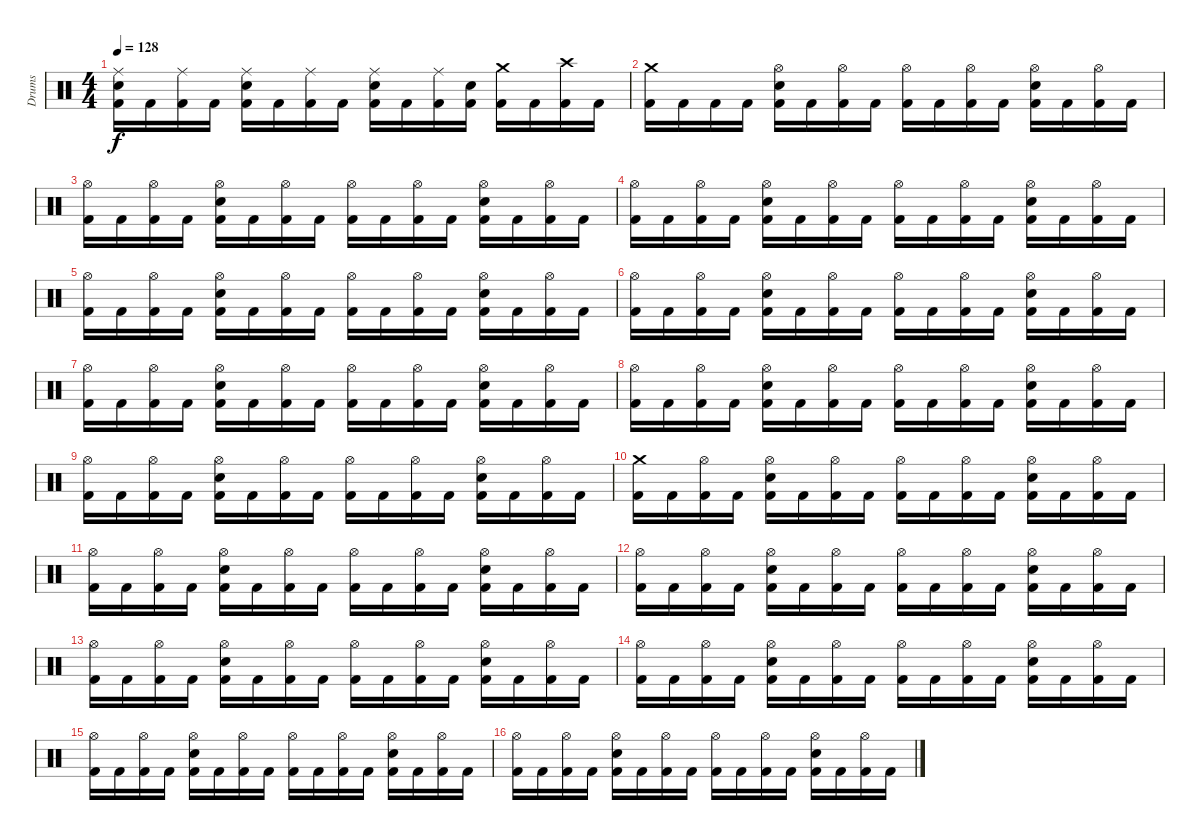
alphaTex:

\track ("Drums" "Drums") {instrument percussion}
\staff {score}
\articulation defaults
\ts (4 4)
\tempo 128
\clef neutral
\ks c
("Ride (middle)" "Electric Snare (hit)" "Kick (hit) 2").16{dy f} "Kick (hit) 2".16 ("Ride (middle)" "Kick (hit) 2").16 "Kick (hit) 2".16 ("Ride (middle)" "Electric Snare (hit)" "Kick (hit) 2").16 "Kick (hit) 2".16 ("Ride (middle)" "Kick (hit) 2").16 "Kick (hit) 2".16 ("Ride (middle)" "Electric Snare (hit)" "Kick (hit) 2").16 "Kick (hit) 2".16 ("Ride (middle)" "Kick (hit) 2").16 ("Electric Snare (hit)" "Kick (hit) 2").16 ("Crash medium (hit)" "Kick (hit) 2").16 "Kick (hit) 2".16 ("Crash high (hit)" "Kick (hit) 2").16 "Kick (hit) 2".16 |
("Crash medium (hit)" "Kick (hit) 2").16 "Kick (hit) 2".16 "Kick (hit) 2".16 "Kick (hit) 2".16 ("Hi-Hat (open)" "Electric Snare (hit)" "Kick (hit) 2").16 "Kick (hit) 2".16 ("Hi-Hat (open)" "Kick (hit) 2").16 "Kick (hit) 2".16 ("Hi-Hat (open)" "Kick (hit) 2").16 "Kick (hit) 2".16 ("Hi-Hat (open)" "Kick (hit) 2").16 "Kick (hit) 2".16 ("Hi-Hat (open)" "Electric Snare (hit)" "Kick (hit) 2").16 "Kick (hit) 2".16 ("Hi-Hat (open)" "Kick (hit) 2").16 "Kick (hit) 2".16 |
("Hi-Hat (open)" "Kick (hit) 2").16 "Kick (hit) 2".16 ("Hi-Hat (open)" "Kick (hit) 2").16 "Kick (hit) 2".16 ("Hi-Hat (open)" "Electric Snare (hit)" "Kick (hit) 2").16 "Kick (hit) 2".16 ("Hi-Hat (open)" "Kick (hit) 2").16 "Kick (hit) 2".16 ("Hi-Hat (open)" "Kick (hit) 2").16 "Kick (hit) 2".16 ("Hi-Hat (open)" "Kick (hit) 2").16 "Kick (hit) 2".16 ("Hi-Hat (open)" "Electric Snare (hit)" "Kick (hit) 2").16 "Kick (hit) 2".16 ("Hi-Hat (open)" "Kick (hit) 2").16 "Kick (hit) 2".16 |
("Hi-Hat (open)" "Kick (hit) 2").16 "Kick (hit) 2".16 ("Hi-Hat (open)" "Kick (hit) 2").16 "Kick (hit) 2".16 ("Hi-Hat (open)" "Electric Snare (hit)" "Kick (hit) 2").16 "Kick (hit) 2".16 ("Hi-Hat (open)" "Kick (hit) 2").16 "Kick (hit) 2".16 ("Hi-Hat (open)" "Kick (hit) 2").16 "Kick (hit) 2".16 ("Hi-Hat (open)" "Kick (hit) 2").16 "Kick (hit) 2".16 ("Hi-Hat (open)" "Electric Snare (hit)" "Kick (hit) 2").16 "Kick (hit) 2".16 ("Hi-Hat (open)" "Kick (hit) 2").16 "Kick (hit) 2".16 |
("Hi-Hat (open)" "Kick (hit) 2").16 "Kick (hit) 2".16 ("Hi-Hat (open)" "Kick (hit) 2").16 "Kick (hit) 2".16 ("Hi-Hat (open)" "Electric Snare (hit)" "Kick (hit) 2").16 "Kick (hit) 2".16 ("Hi-Hat (open)" "Kick (hit) 2").16 "Kick (hit) 2".16 ("Hi-Hat (open)" "Kick (hit) 2").16 "Kick (hit) 2".16 ("Hi-Hat (open)" "Kick (hit) 2").16 "Kick (hit) 2".16 ("Hi-Hat (open)" "Electric Snare (hit)" "Kick (hit) 2").16 "Kick (hit) 2".16 ("Hi-Hat (open)" "Kick (hit) 2").16 "Kick (hit) 2".16 |
("Hi-Hat (open)" "Kick (hit) 2").16 "Kick (hit) 2".16 ("Hi-Hat (open)" "Kick (hit) 2").16 "Kick (hit) 2".16 ("Hi-Hat (open)" "Electric Snare (hit)" "Kick (hit) 2").16 "Kick (hit) 2".16 ("Hi-Hat (open)" "Kick (hit) 2").16 "Kick (hit) 2".16 ("Hi-Hat (open)" "Kick (hit) 2").16 "Kick (hit) 2".16 ("Hi-Hat (open)" "Kick (hit) 2").16 "Kick (hit) 2".16 ("Hi-Hat (open)" "Electric Snare (hit)" "Kick (hit) 2").16 "Kick (hit) 2".16 ("Hi-Hat (open)" "Kick (hit) 2").16 "Kick (hit) 2".16 |
("Hi-Hat (open)" "Kick (hit) 2").16 "Kick (hit) 2".16 ("Hi-Hat (open)" "Kick (hit) 2").16 "Kick (hit) 2".16 ("Hi-Hat (open)" "Electric Snare (hit)" "Kick (hit) 2").16 "Kick (hit) 2".16 ("Hi-Hat (open)" "Kick (hit) 2").16 "Kick (hit) 2".16 ("Hi-Hat (open)" "Kick (hit) 2").16 "Kick (hit) 2".16 ("Hi-Hat (open)" "Kick (hit) 2").16 "Kick (hit) 2".16 ("Hi-Hat (open)" "Electric Snare (hit)" "Kick (hit) 2").16 "Kick (hit) 2".16 ("Hi-Hat (open)" "Kick (hit) 2").16 "Kick (hit) 2".16 |
("Hi-Hat (open)" "Kick (hit) 2").16 "Kick (hit) 2".16 ("Hi-Hat (open)" "Kick (hit) 2").16 "Kick (hit) 2".16 ("Hi-Hat (open)" "Electric Snare (hit)" "Kick (hit) 2").16 "Kick (hit) 2".16 ("Hi-Hat (open)" "Kick (hit) 2").16 "Kick (hit) 2".16 ("Hi-Hat (open)" "Kick (hit) 2").16 "Kick (hit) 2".16 ("Hi-Hat (open)" "Kick (hit) 2").16 "Kick (hit) 2".16 ("Hi-Hat (open)" "Electric Snare (hit)" "Kick (hit) 2").16 "Kick (hit) 2".16 ("Hi-Hat (open)" "Kick (hit) 2").16 "Kick (hit) 2".16 |
("Hi-Hat (open)" "Kick (hit) 2").16 "Kick (hit) 2".16 ("Hi-Hat (open)" "Kick (hit) 2").16 "Kick (hit) 2".16 ("Hi-Hat (open)" "Electric Snare (hit)" "Kick (hit) 2").16 "Kick (hit) 2".16 ("Hi-Hat (open)" "Kick (hit) 2").16 "Kick (hit) 2".16 ("Hi-Hat (open)" "Kick (hit) 2").16 "Kick (hit) 2".16 ("Hi-Hat (open)" "Kick (hit) 2").16 "Kick (hit) 2".16 ("Hi-Hat (open)" "Electric Snare (hit)" "Kick (hit) 2").16 "Kick (hit) 2".16 ("Hi-Hat (open)" "Kick (hit) 2").16 "Kick (hit) 2".16 |
("Crash medium (hit)" "Kick (hit) 2").16 "Kick (hit) 2".16 ("Hi-Hat (open)" "Kick (hit) 2").16 "Kick (hit) 2".16 ("Hi-Hat (open)" "Electric Snare (hit)" "Kick (hit) 2").16 "Kick (hit) 2".16 ("Hi-Hat (open)" "Kick (hit) 2").16 "Kick (hit) 2".16 ("Hi-Hat (open)" "Kick (hit) 2").16 "Kick (hit) 2".16 ("Hi-Hat (open)" "Kick (hit) 2").16 "Kick (hit) 2".16 ("Hi-Hat (open)" "Electric Snare (hit)" "Kick (hit) 2").16 "Kick (hit) 2".16 ("Hi-Hat (open)" "Kick (hit) 2").16 "Kick (hit) 2".16 |
("Hi-Hat (open)" "Kick (hit) 2").16 "Kick (hit) 2".16 ("Hi-Hat (open)" "Kick (hit) 2").16 "Kick (hit) 2".16 ("Hi-Hat (open)" "Electric Snare (hit)" "Kick (hit) 2").16 "Kick (hit) 2".16 ("Hi-Hat (open)" "Kick (hit) 2").16 "Kick (hit) 2".16 ("Hi-Hat (open)" "Kick (hit) 2").16 "Kick (hit) 2".16 ("Hi-Hat (open)" "Kick (hit) 2").16 "Kick (hit) 2".16 ("Hi-Hat (open)" "Electric Snare (hit)" "Kick (hit) 2").16 "Kick (hit) 2".16 ("Hi-Hat (open)" "Kick (hit) 2").16 "Kick (hit) 2".16 |
("Hi-Hat (open)" "Kick (hit) 2").16 "Kick (hit) 2".16 ("Hi-Hat (open)" "Kick (hit) 2").16 "Kick (hit) 2".16 ("Hi-Hat (open)" "Electric Snare (hit)" "Kick (hit) 2").16 "Kick (hit) 2".16 ("Hi-Hat (open)" "Kick (hit) 2").16 "Kick (hit) 2".16 ("Hi-Hat (open)" "Kick (hit) 2").16 "Kick (hit) 2".16 ("Hi-Hat (open)" "Kick (hit) 2").16 "Kick (hit) 2".16 ("Hi-Hat (open)" "Electric Snare (hit)" "Kick (hit) 2").16 "Kick (hit) 2".16 ("Hi-Hat (open)" "Kick (hit) 2").16 "Kick (hit) 2".16 |
("Hi-Hat (open)" "Kick (hit) 2").16 "Kick (hit) 2".16 ("Hi-Hat (open)" "Kick (hit) 2").16 "Kick (hit) 2".16 ("Hi-Hat (open)" "Electric Snare (hit)" "Kick (hit) 2").16 "Kick (hit) 2".16 ("Hi-Hat (open)" "Kick (hit) 2").16 "Kick (hit) 2".16 ("Hi-Hat (open)" "Kick (hit) 2").16 "Kick (hit) 2".16 ("Hi-Hat (open)" "Kick (hit) 2").16 "Kick (hit) 2".16 ("Hi-Hat (open)" "Electric Snare (hit)" "Kick (hit) 2").16 "Kick (hit) 2".16 ("Hi-Hat (open)" "Kick (hit) 2").16 "Kick (hit) 2".16 |
("Hi-Hat (open)" "Kick (hit) 2").16 "Kick (hit) 2".16 ("Hi-Hat (open)" "Kick (hit) 2").16 "Kick (hit) 2".16 ("Hi-Hat (open)" "Electric Snare (hit)" "Kick (hit) 2").16 "Kick (hit) 2".16 ("Hi-Hat (open)" "Kick (hit) 2").16 "Kick (hit) 2".16 ("Hi-Hat (open)" "Kick (hit) 2").16 "Kick (hit) 2".16 ("Hi-Hat (open)" "Kick (hit) 2").16 "Kick (hit) 2".16 ("Hi-Hat (open)" "Electric Snare (hit)" "Kick (hit) 2").16 "Kick (hit) 2".16 ("Hi-Hat (open)" "Kick (hit) 2").16 "Kick (hit) 2".16 |
("Hi-Hat (open)" "Kick (hit) 2").16 "Kick (hit) 2".16 ("Hi-Hat (open)" "Kick (hit) 2").16 "Kick (hit) 2".16 ("Hi-Hat (open)" "Electric Snare (hit)" "Kick (hit) 2").16 "Kick (hit) 2".16 ("Hi-Hat (open)" "Kick (hit) 2").16 "Kick (hit) 2".16 ("Hi-Hat (open)" "Kick (hit) 2").16 "Kick (hit) 2".16 ("Hi-Hat (open)" "Kick (hit) 2").16 "Kick (hit) 2".16 ("Hi-Hat (open)" "Electric Snare (hit)" "Kick (hit) 2").16 "Kick (hit) 2".16 ("Hi-Hat (open)" "Kick (hit) 2").16 "Kick (hit) 2".16 |
("Hi-Hat (open)" "Kick (hit) 2").16 "Kick (hit) 2".16 ("Hi-Hat (open)" "Kick (hit) 2").16 "Kick (hit) 2".16 ("Hi-Hat (open)" "Electric Snare (hit)" "Kick (hit) 2").16 "Kick (hit) 2".16 ("Hi-Hat (open)" "Kick (hit) 2").16 "Kick (hit) 2".16 ("Hi-Hat (open)" "Kick (hit) 2").16 "Kick (hit) 2".16 ("Hi-Hat (open)" "Kick (hit) 2").16 "Kick (hit) 2".16 ("Hi-Hat (open)" "Electric Snare (hit)" "Kick (hit) 2").16 "Kick (hit) 2".16 ("Hi-Hat (open)" "Kick (hit) 2").16 "Kick (hit) 2".16
